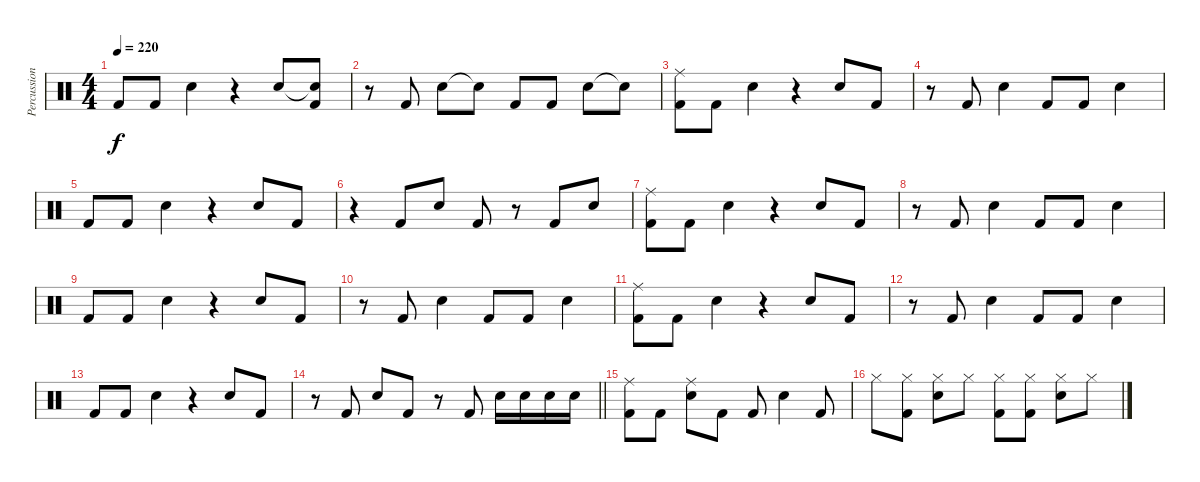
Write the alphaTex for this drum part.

\track ("Percussion" "Percussion") {instrument percussion}
\staff {score}
\articulation defaults
\ts (4 4)
\tempo 220
\clef neutral
\ks c "Kick (hit) 2".8{dy f} "Kick (hit) 2".8 "Electric Snare (hit)".4
r.4 "Electric Snare (hit)".8 ("Snare (hit)"{t} "Kick (hit) 2").8 |
r.8 "Kick (hit) 2".8 "Electric Snare (hit)".8 "Snare (hit)"{t}.8 "Kick (hit) 2".8 "Kick (hit) 2".8 "Electric Snare (hit)".8 "Snare (hit)"{t}.8 |
("Ride (middle)" "Kick (hit) 2").8 "Kick (hit) 2".8 "Electric Snare (hit)".4 r.4 "Electric Snare (hit)".8 "Kick (hit) 2".8 |
r.8 "Kick (hit) 2".8 "Electric Snare (hit)".4 "Kick (hit) 2".8 "Kick (hit) 2".8 "Electric Snare (hit)".4 |
"Kick (hit) 2".8 "Kick (hit) 2".8 "Electric Snare (hit)".4 r.4 "Electric Snare (hit)".8 "Kick (hit) 2".8 |
r.4 "Kick (hit) 2".8 "Electric Snare (hit)".8 "Kick (hit) 2".8 r.8 "Kick (hit) 2".8 "Electric Snare (hit)".8 |
("Ride (middle)" "Kick (hit) 2").8 "Kick (hit) 2".8 "Electric Snare (hit)".4 r.4 "Electric Snare (hit)".8 "Kick (hit) 2".8 |
r.8 "Kick (hit) 2".8 "Electric Snare (hit)".4 "Kick (hit) 2".8 "Kick (hit) 2".8 "Electric Snare (hit)".4 |
"Kick (hit) 2".8 "Kick (hit) 2".8 "Electric Snare (hit)".4 r.4 "Electric Snare (hit)".8 "Kick (hit) 2".8 |
r.8 "Kick (hit) 2".8 "Electric Snare (hit)".4 "Kick (hit) 2".8 "Kick (hit) 2".8 "Electric Snare (hit)".4 |
("Ride (middle)" "Kick (hit) 2").8 "Kick (hit) 2".8 "Electric Snare (hit)".4 r.4 "Electric Snare (hit)".8 "Kick (hit) 2".8 |
r.8 "Kick (hit) 2".8 "Electric Snare (hit)".4 "Kick (hit) 2".8 "Kick (hit) 2".8 "Electric Snare (hit)".4 |
"Kick (hit) 2".8 "Kick (hit) 2".8 "Electric Snare (hit)".4 r.4 "Electric Snare (hit)".8 "Kick (hit) 2".8 |
\barLineRight lightlight
r.8 "Kick (hit) 2".8 "Electric Snare (hit)".8 "Kick (hit) 2".8 r.8 "Kick (hit) 2".8 "Electric Snare (hit)".16 "Electric Snare (hit)".16 "Electric Snare (hit)".16 "Electric Snare (hit)".16 |
("Ride (middle)" "Kick (hit) 2").8 "Kick (hit) 2".8 ("Ride (middle)" "Electric Snare (hit)").8 "Kick (hit) 2".8 "Kick (hit) 2".8 "Electric Snare (hit)".4 "Kick (hit) 2".8 |
"Hi-Hat (closed)".8 ("Hi-Hat (closed)" "Kick (hit) 2").8 ("Hi-Hat (closed)" "Electric Snare (hit)").8 "Hi-Hat (closed)".8 ("Hi-Hat (closed)" "Kick (hit) 2").8 ("Hi-Hat (closed)" "Kick (hit) 2").8 ("Hi-Hat (closed)" "Electric Snare (hit)").8 "Hi-Hat (closed)".8
